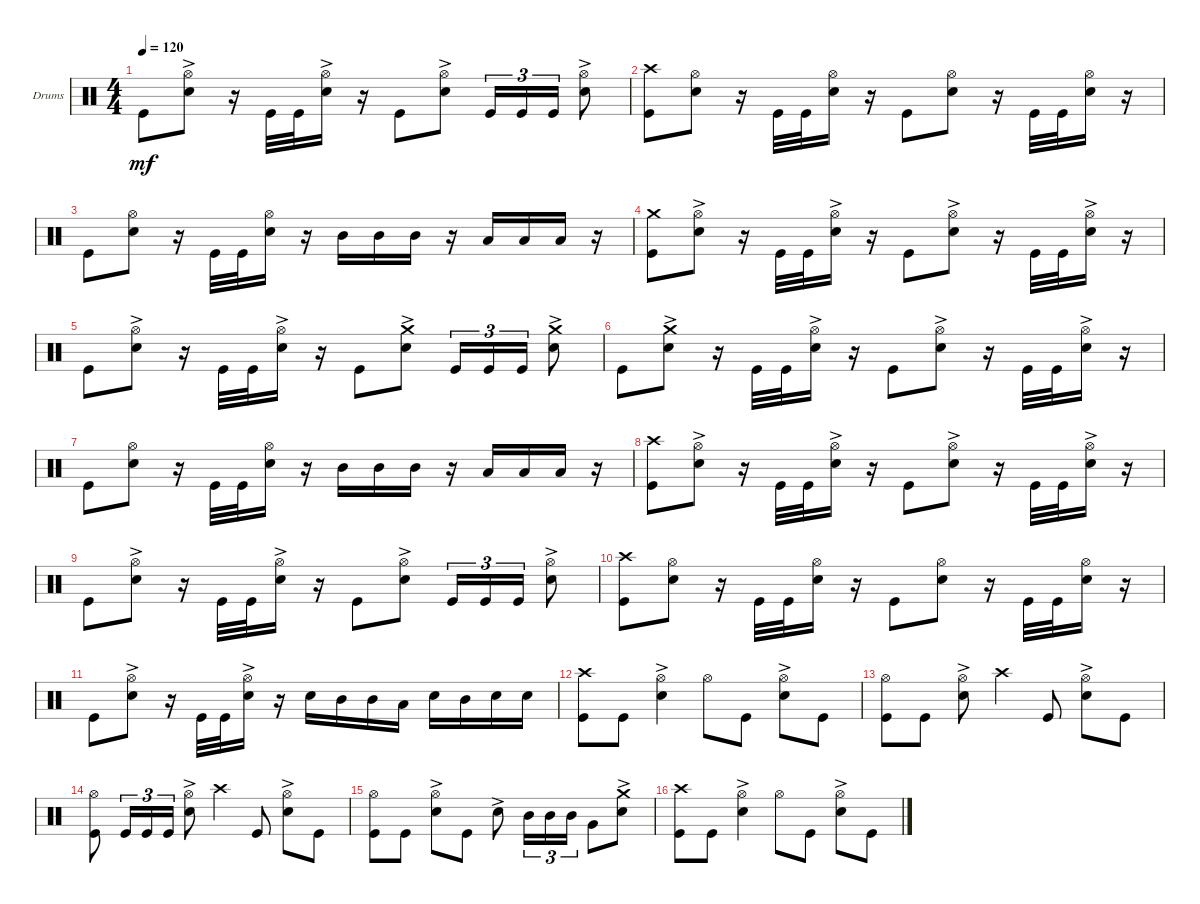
\defaultSystemsLayout 4
\bracketExtendMode groupsimilarinstruments
\firstSystemTrackNameOrientation horizontal
\otherSystemsTrackNameOrientation horizontal
\track ("Drumkit" "Drums") {instrument percussion}
\staff {score}
\articulation defaults
\ts (4 4)
\tempo 120
\clef neutral
\scale
0.321138
\ks c "Kick (hit)".8{dy mf}
("Snare (hit) 2"{ac} "Hi-Hat (open)").8 r.16 "Kick (hit)".32 "Kick (hit)".32 ("Snare (hit) 2"{ac} "Hi-Hat (open)").16 r.16 "Kick (hit)".8 ("Snare (hit) 2"{ac} "Hi-Hat (open)").8 "Kick (hit)".16{tu (3 2)} "Kick (hit)".16{tu (3 2)} "Kick (hit)".16{tu (3 2)} ("Snare (hit) 2"{ac} "Hi-Hat (open)").8 |
\scale
0.333333 ("Kick (hit)" "Crash high (hit)").8 ("Snare (hit) 2" "Hi-Hat (open)").8 r.16 "Kick (hit)".32 "Kick (hit)".32 ("Snare (hit) 2" "Hi-Hat (open)").16 r.16 "Kick (hit)".8 ("Snare (hit) 2" "Hi-Hat (open)").8 r.16 "Kick (hit)".32 "Kick (hit)".32 ("Snare (hit) 2" "Hi-Hat (open)").16 r.16 |
\scale
0.345528 "Kick (hit)".8 ("Snare (hit) 2" "Hi-Hat (open)").8 r.16 "Kick (hit)".32 "Kick (hit)".32 ("Snare (hit) 2" "Hi-Hat (open)").16 r.16 "Mid Tom (hit)".16 "Mid Tom (hit)".16 "Mid Tom (hit)".16 r.16 "Low Tom (hit)".16 "Low Tom (hit)".16 "Low Tom (hit)".16 r.16 |
\scale
0.337449 ("Kick (hit)" "Crash medium (hit)").8 ("Snare (hit) 2"{ac} "Hi-Hat (open)").8 r.16 "Kick (hit)".32 "Kick (hit)".32 ("Snare (hit) 2"{ac} "Hi-Hat (open)").16 r.16 "Kick (hit)".8 ("Snare (hit) 2"{ac} "Hi-Hat (open)").8 r.16 "Kick (hit)".32 "Kick (hit)".32 ("Snare (hit) 2"{ac} "Hi-Hat (open)").16 r.16 |
\scale
0.325103 "Kick (hit)".8 ("Snare (hit) 2"{ac} "Hi-Hat (open)").8 r.16 "Kick (hit)".32 "Kick (hit)".32 ("Snare (hit) 2"{ac} "Hi-Hat (open)").16 r.16 "Kick (hit)".8 ("Snare (hit) 2"{ac} "Crash medium (hit)").8 "Kick (hit)".16{tu (3 2)} "Kick (hit)".16{tu (3 2)} "Kick (hit)".16{tu (3 2)} ("Snare (hit) 2"{ac} "Crash medium (hit)").8 |
\scale
0.337449 "Kick (hit)".8 ("Snare (hit) 2"{ac} "Crash medium (hit)").8 r.16 "Kick (hit)".32 "Kick (hit)".32 ("Snare (hit) 2"{ac} "Hi-Hat (open)").16 r.16 "Kick (hit)".8 ("Snare (hit) 2"{ac} "Hi-Hat (open)").8 r.16 "Kick (hit)".32 "Kick (hit)".32 ("Snare (hit) 2"{ac} "Hi-Hat (open)").16 r.16 |
\scale
0.345528 "Kick (hit)".8 ("Snare (hit) 2" "Hi-Hat (open)").8 r.16 "Kick (hit)".32 "Kick (hit)".32 ("Snare (hit) 2" "Hi-Hat (open)").16 r.16 "Mid Tom (hit)".16 "Mid Tom (hit)".16 "Mid Tom (hit)".16 r.16 "Low Tom (hit)".16 "Low Tom (hit)".16 "Low Tom (hit)".16 r.16 |
\scale
0.333333 ("Kick (hit)" "Crash high (hit)").8 ("Snare (hit) 2"{ac} "Hi-Hat (open)").8 r.16 "Kick (hit)".32 "Kick (hit)".32 ("Snare (hit) 2"{ac} "Hi-Hat (open)").16 r.16 "Kick (hit)".8 ("Snare (hit) 2"{ac} "Hi-Hat (open)").8 r.16 "Kick (hit)".32 "Kick (hit)".32 ("Snare (hit) 2"{ac} "Hi-Hat (open)").16 r.16 |
\scale
0.321138 "Kick (hit)".8 ("Snare (hit) 2"{ac} "Hi-Hat (open)").8 r.16 "Kick (hit)".32 "Kick (hit)".32 ("Snare (hit) 2"{ac} "Hi-Hat (open)").16 r.16 "Kick (hit)".8 ("Snare (hit) 2"{ac} "Hi-Hat (open)").8 "Kick (hit)".16{tu (3 2)} "Kick (hit)".16{tu (3 2)} "Kick (hit)".16{tu (3 2)} ("Snare (hit) 2"{ac} "Hi-Hat (open)").8 |
\scale
0.37788 ("Kick (hit)" "Crash high (hit)").8 ("Snare (hit) 2" "Hi-Hat (open)").8 r.16 "Kick (hit)".32 "Kick (hit)".32 ("Snare (hit) 2" "Hi-Hat (open)").16 r.16 "Kick (hit)".8 ("Snare (hit) 2" "Hi-Hat (open)").8 r.16 "Kick (hit)".32 "Kick (hit)".32 ("Snare (hit) 2" "Hi-Hat (open)").16 r.16 |
\scale
0.391705 "Kick (hit)".8 ("Snare (hit) 2"{ac} "Hi-Hat (open)").8 r.16 "Kick (hit)".32 "Kick (hit)".32 ("Snare (hit) 2"{ac} "Hi-Hat (open)").16 r.16 "Snare (hit) 2".16 "Mid Tom (hit)".16 "Mid Tom (hit)".16 "Low Tom (hit)".16 "Snare (hit) 2".16 "Mid Tom (hit)".16 "Snare (hit) 2".16 "Snare (hit) 2".16 |
\scale
0.230415 ("Kick (hit)" "Crash high (hit)").8 "Kick (hit)".8 ("Hi-Hat (open)" "Snare (hit) 2"{ac}).4 "Hi-Hat (open)".8 "Kick (hit)".8 ("Snare (hit) 2"{ac} "Hi-Hat (open)").8 "Kick (hit)".8 |
\scale
0.248344 ("Kick (hit)" "Hi-Hat (open)").8 "Kick (hit)".8 ("Hi-Hat (open)" "Snare (hit) 2"{ac}).8 "Crash high (hit)".4 "Kick (hit)".8 ("Snare (hit) 2"{ac} "Hi-Hat (open)").8 "Kick (hit)".8 |
\scale
0.364238 ("Kick (hit)" "Hi-Hat (open)").8 "Kick (hit)".16{tu (3 2)} "Kick (hit)".16{tu (3 2)} "Kick (hit)".16{tu (3 2)} ("Hi-Hat (open)" "Snare (hit) 2"{ac}).8 "Crash high (hit)".4 "Kick (hit)".8 ("Snare (hit) 2"{ac} "Hi-Hat (open)").8 "Kick (hit)".8 |
\scale
0.387417 ("Kick (hit)" "Hi-Hat (open)").8 "Kick (hit)".8 ("Hi-Hat (open)" "Snare (hit) 2"{ac}).8 "Kick (hit)".8 "Snare (hit) 2"{ac}.8 "Mid Tom (hit)".16{tu (3 2)} "Mid Tom (hit)".16{tu (3 2)} "Mid Tom (hit)".16{tu (3 2)} "Very Low Tom (hit)".8 ("Snare (hit) 2"{ac} "Crash medium (hit)").8 |
\scale
0.288462 ("Kick (hit)" "Crash high (hit)").8 "Kick (hit)".8 ("Hi-Hat (open)" "Snare (hit) 2"{ac}).4 "Hi-Hat (open)".8 "Kick (hit)".8 ("Snare (hit) 2"{ac} "Hi-Hat (open)").8 "Kick (hit)".8
